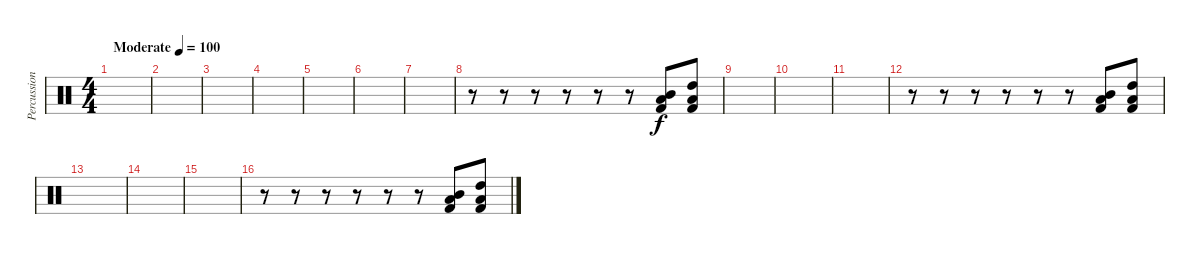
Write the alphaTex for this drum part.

\track ("Percussion" "Percussion") {instrument percussion}
\staff {score}
\articulation defaults
\ts (4 4)
\tempo (100 "Moderate")
\clef neutral
\ks c
|
|
|
|
|
|
|
r.8 r.8 r.8 r.8 r.8 r.8 ("Kick (hit) 2" "Mid Tom (hit)" "Low Tom (hit)").8 ("Kick (hit) 2" "High Tom (hit)" "Low Tom (hit)").8 |
|
|
|
r.8 r.8 r.8 r.8 r.8 r.8 ("Kick (hit) 2" "Mid Tom (hit)" "Low Tom (hit)").8 ("Kick (hit) 2" "High Tom (hit)" "Low Tom (hit)").8 |
|
|
|
r.8 r.8 r.8 r.8 r.8 r.8 ("Kick (hit) 2" "Mid Tom (hit)" "Low Tom (hit)").8 ("Kick (hit) 2" "High Tom (hit)" "Low Tom (hit)").8
